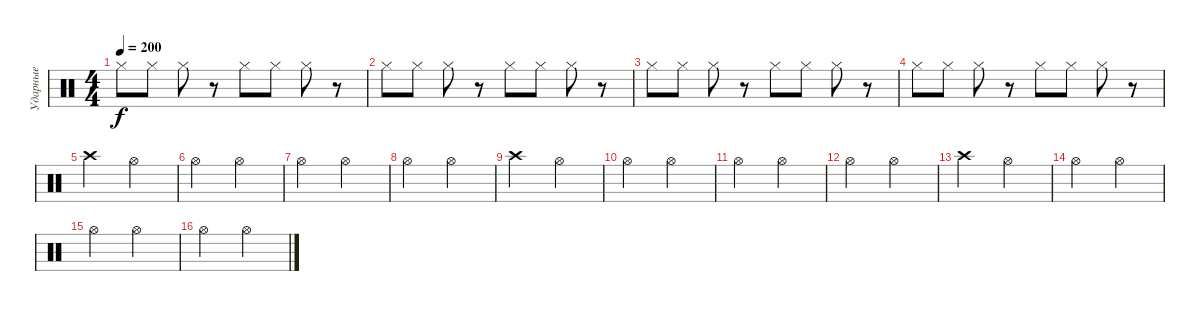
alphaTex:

\track ("Ударные" "Ударные") {instrument percussion}
\staff {score}
\articulation defaults
\ts (4 4)
\tempo 200
\clef neutral
\ks c "Hi-Hat (closed)".8{dy f} "Hi-Hat (closed)".8 "Hi-Hat (closed)".8
r.8 "Hi-Hat (closed)".8 "Hi-Hat (closed)".8 "Hi-Hat (closed)".8 r.8 |
"Hi-Hat (closed)".8 "Hi-Hat (closed)".8 "Hi-Hat (closed)".8 r.8 "Hi-Hat (closed)".8 "Hi-Hat (closed)".8 "Hi-Hat (closed)".8 r.8 |
"Hi-Hat (closed)".8 "Hi-Hat (closed)".8 "Hi-Hat (closed)".8 r.8 "Hi-Hat (closed)".8 "Hi-Hat (closed)".8 "Hi-Hat (closed)".8 r.8 |
"Hi-Hat (closed)".8 "Hi-Hat (closed)".8 "Hi-Hat (closed)".8 r.8 "Hi-Hat (closed)".8 "Hi-Hat (closed)".8 "Hi-Hat (closed)".8 r.8 |
"Crash high (hit)".2 "Hi-Hat (open)".2 |
"Hi-Hat (open)".2 "Hi-Hat (open)".2 |
"Hi-Hat (open)".2 "Hi-Hat (open)".2 |
"Hi-Hat (open)".2 "Hi-Hat (open)".2 |
"Crash high (hit)".2 "Hi-Hat (open)".2 |
"Hi-Hat (open)".2 "Hi-Hat (open)".2 |
"Hi-Hat (open)".2 "Hi-Hat (open)".2 |
"Hi-Hat (open)".2 "Hi-Hat (open)".2 |
"Crash high (hit)".2 "Hi-Hat (open)".2 |
"Hi-Hat (open)".2 "Hi-Hat (open)".2 |
"Hi-Hat (open)".2 "Hi-Hat (open)".2 |
"Hi-Hat (open)".2 "Hi-Hat (open)".2
